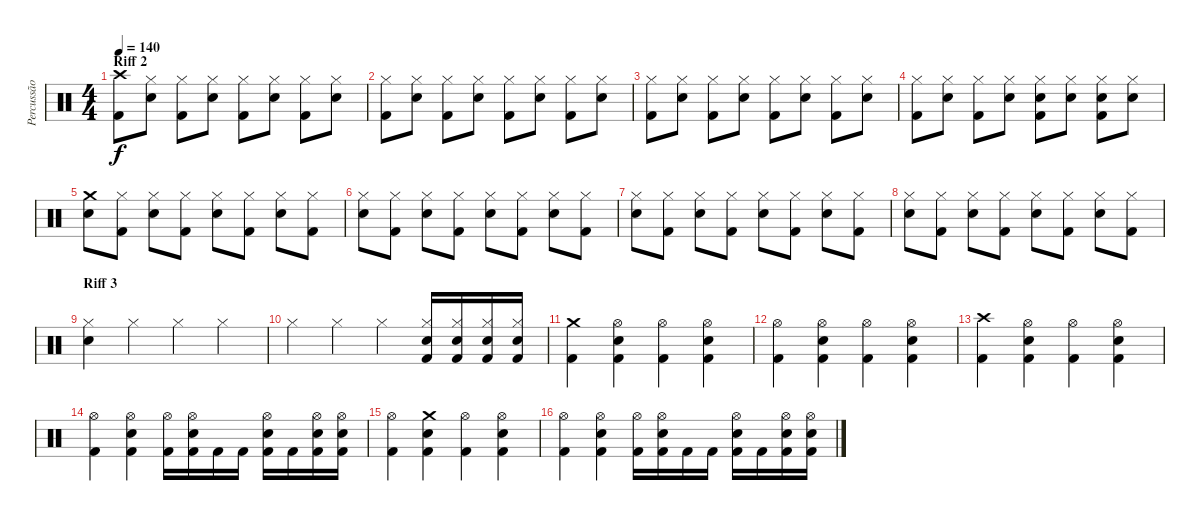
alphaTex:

\track ("Percussão" "Percussão") {instrument percussion}
\staff {score}
\articulation defaults
\ts (4 4)
\section ("" "Riff 2")
\tempo 140
\clef neutral
\ks c
("Crash high (hit)" "Kick (hit) 2").8{dy f} ("Hi-Hat (closed)" "Snare (hit) 2").8 ("Hi-Hat (closed)" "Kick (hit) 2").8 ("Hi-Hat (closed)" "Snare (hit) 2").8 ("Hi-Hat (closed)" "Kick (hit) 2").8 ("Hi-Hat (closed)" "Snare (hit) 2").8 ("Hi-Hat (closed)" "Kick (hit) 2").8 ("Hi-Hat (closed)" "Snare (hit) 2").8 |
("Hi-Hat (closed)" "Kick (hit) 2").8 ("Hi-Hat (closed)" "Snare (hit) 2").8 ("Hi-Hat (closed)" "Kick (hit) 2").8 ("Hi-Hat (closed)" "Snare (hit) 2").8 ("Hi-Hat (closed)" "Kick (hit) 2").8 ("Hi-Hat (closed)" "Snare (hit) 2").8 ("Hi-Hat (closed)" "Kick (hit) 2").8 ("Hi-Hat (closed)" "Snare (hit) 2").8 |
("Hi-Hat (closed)" "Kick (hit) 2").8 ("Hi-Hat (closed)" "Snare (hit) 2").8 ("Hi-Hat (closed)" "Kick (hit) 2").8 ("Hi-Hat (closed)" "Snare (hit) 2").8 ("Hi-Hat (closed)" "Kick (hit) 2").8 ("Hi-Hat (closed)" "Snare (hit) 2").8 ("Hi-Hat (closed)" "Kick (hit) 2").8 ("Hi-Hat (closed)" "Snare (hit) 2").8 |
("Hi-Hat (closed)" "Kick (hit) 2").8 ("Hi-Hat (closed)" "Snare (hit) 2").8 ("Hi-Hat (closed)" "Kick (hit) 2").8 ("Hi-Hat (closed)" "Snare (hit) 2").8 ("Hi-Hat (closed)" "Snare (hit) 2" "Kick (hit) 2").8 ("Hi-Hat (closed)" "Snare (hit) 2").8 ("Hi-Hat (closed)" "Snare (hit) 2" "Kick (hit) 2").8 ("Hi-Hat (closed)" "Snare (hit) 2").8 |
("Crash medium (hit)" "Snare (hit) 2").8 ("Hi-Hat (closed)" "Kick (hit) 2").8 ("Hi-Hat (closed)" "Snare (hit) 2").8 ("Hi-Hat (closed)" "Kick (hit) 2").8 ("Hi-Hat (closed)" "Snare (hit) 2").8 ("Hi-Hat (closed)" "Kick (hit) 2").8 ("Hi-Hat (closed)" "Snare (hit) 2").8 ("Hi-Hat (closed)" "Kick (hit) 2").8 |
("Hi-Hat (closed)" "Snare (hit) 2").8 ("Hi-Hat (closed)" "Kick (hit) 2").8 ("Hi-Hat (closed)" "Snare (hit) 2").8 ("Hi-Hat (closed)" "Kick (hit) 2").8 ("Hi-Hat (closed)" "Snare (hit) 2").8 ("Hi-Hat (closed)" "Kick (hit) 2").8 ("Hi-Hat (closed)" "Snare (hit) 2").8 ("Hi-Hat (closed)" "Kick (hit) 2").8 |
("Hi-Hat (closed)" "Snare (hit) 2").8 ("Hi-Hat (closed)" "Kick (hit) 2").8 ("Hi-Hat (closed)" "Snare (hit) 2").8 ("Hi-Hat (closed)" "Kick (hit) 2").8 ("Hi-Hat (closed)" "Snare (hit) 2").8 ("Hi-Hat (closed)" "Kick (hit) 2").8 ("Hi-Hat (closed)" "Snare (hit) 2").8 ("Hi-Hat (closed)" "Kick (hit) 2").8 |
("Hi-Hat (closed)" "Snare (hit) 2").8 ("Hi-Hat (closed)" "Kick (hit) 2").8 ("Hi-Hat (closed)" "Snare (hit) 2").8 ("Hi-Hat (closed)" "Kick (hit) 2").8 ("Hi-Hat (closed)" "Snare (hit) 2").8 ("Hi-Hat (closed)" "Kick (hit) 2").8 ("Hi-Hat (closed)" "Snare (hit) 2").8 ("Hi-Hat (closed)" "Kick (hit) 2").8 |
\section ("" "Riff 3")
("Hi-Hat (closed)" "Snare (hit) 2").4 "Hi-Hat (closed)".4 "Hi-Hat (closed)".4 "Hi-Hat (closed)".4 |
"Hi-Hat (closed)".4 "Hi-Hat (closed)".4 "Hi-Hat (closed)".4 ("Hi-Hat (closed)" "Snare (hit) 2" "Kick (hit) 2").16 ("Hi-Hat (closed)" "Snare (hit) 2" "Kick (hit) 2").16 ("Hi-Hat (closed)" "Snare (hit) 2" "Kick (hit) 2").16 ("Hi-Hat (closed)" "Snare (hit) 2" "Kick (hit) 2").16 |
("Crash medium (hit)" "Kick (hit) 2").4 ("Hi-Hat (open)" "Snare (hit) 2" "Kick (hit) 2").4 ("Hi-Hat (open)" "Kick (hit) 2").4 ("Hi-Hat (open)" "Snare (hit) 2" "Kick (hit) 2").4 |
("Hi-Hat (open)" "Kick (hit) 2").4 ("Hi-Hat (open)" "Snare (hit) 2" "Kick (hit) 2").4 ("Hi-Hat (open)" "Kick (hit) 2").4 ("Hi-Hat (open)" "Snare (hit) 2" "Kick (hit) 2").4 |
("Crash high (hit)" "Kick (hit) 2").4 ("Hi-Hat (open)" "Snare (hit) 2" "Kick (hit) 2").4 ("Hi-Hat (open)" "Kick (hit) 2").4 ("Hi-Hat (open)" "Snare (hit) 2" "Kick (hit) 2").4 |
("Hi-Hat (open)" "Kick (hit) 2").4 ("Hi-Hat (open)" "Snare (hit) 2" "Kick (hit) 2").4 ("Hi-Hat (open)" "Kick (hit) 2").16 ("Hi-Hat (open)" "Snare (hit) 2" "Kick (hit) 2").16 "Kick (hit) 2".16 "Kick (hit) 2".16 ("Hi-Hat (open)" "Snare (hit) 2" "Kick (hit) 2").16 "Kick (hit) 2".16 ("Hi-Hat (open)" "Snare (hit) 2" "Kick (hit) 2").16 ("Hi-Hat (open)" "Snare (hit) 2" "Kick (hit) 2").16 |
("Hi-Hat (open)" "Kick (hit) 2").4 ("Crash medium (hit)" "Snare (hit) 2" "Kick (hit) 2").4 ("Hi-Hat (open)" "Kick (hit) 2").4 ("Hi-Hat (open)" "Snare (hit) 2" "Kick (hit) 2").4 |
("Hi-Hat (open)" "Kick (hit) 2").4 ("Hi-Hat (open)" "Snare (hit) 2" "Kick (hit) 2").4 ("Hi-Hat (open)" "Kick (hit) 2").16 ("Hi-Hat (open)" "Snare (hit) 2" "Kick (hit) 2").16 "Kick (hit) 2".16 "Kick (hit) 2".16 ("Hi-Hat (open)" "Snare (hit) 2" "Kick (hit) 2").16 "Kick (hit) 2".16 ("Hi-Hat (open)" "Snare (hit) 2" "Kick (hit) 2").16 ("Hi-Hat (open)" "Snare (hit) 2" "Kick (hit) 2").16
